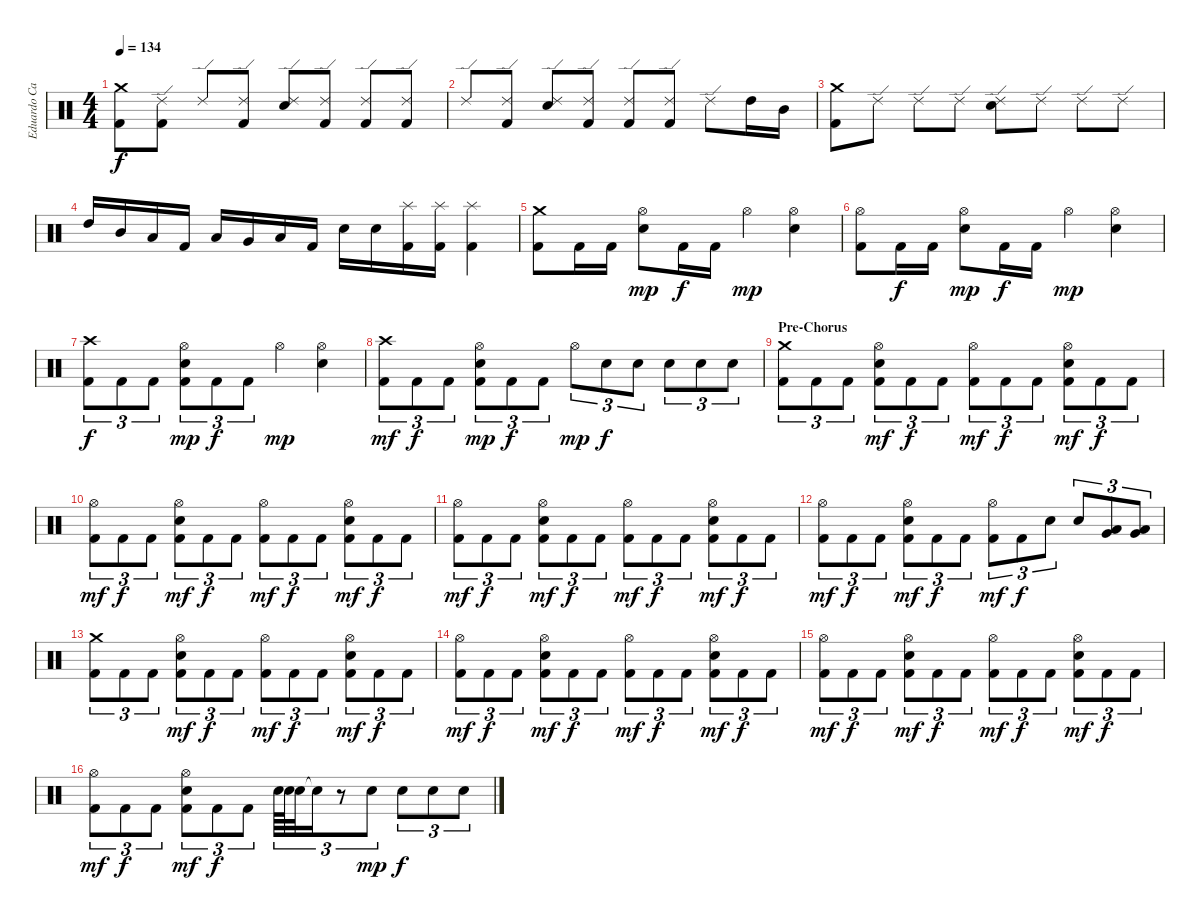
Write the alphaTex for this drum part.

\track ("Eduardo Carrillo" "Eduardo Ca") {instrument percussion}
\staff {score}
\articulation defaults
\ts (4 4)
\tempo 134
\clef neutral
\ks c
("Kick (hit) 2" "Crash medium (hit)").8{dy f} ("Kick (hit) 2" "Ride (edge) 2").8 "Ride (edge) 2".8 ("Kick (hit) 2" "Ride (edge) 2").8 ("Ride (edge) 2" "Snare (hit) 2").8 ("Kick (hit) 2" "Ride (edge) 2").8 ("Kick (hit) 2" "Ride (edge) 2").8 ("Kick (hit) 2" "Ride (edge) 2").8 |
"Ride (edge) 2".8 ("Kick (hit) 2" "Ride (edge) 2").8 ("Ride (edge) 2" "Snare (hit) 2").8 ("Kick (hit) 2" "Ride (edge) 2").8 ("Kick (hit) 2" "Ride (edge) 2").8 ("Kick (hit) 2" "Ride (edge) 2").8 "Ride (edge) 2".8 "High Tom (hit)".16 "Mid Tom (hit)".16 |
("Kick (hit) 2" "Crash medium (hit)").8 "Ride (edge) 2".8 "Ride (edge) 2".8 "Ride (edge) 2".8 ("Ride (edge) 2" "Snare (hit) 2").8 "Ride (edge) 2".8 "Ride (edge) 2".8 "Ride (edge) 2".8 |
"High Tom (hit)".16 "Mid Tom (hit)".16 "Low Tom (hit)".16 "Kick (hit) 2".16 "Low Tom (hit)".16 "Very Low Tom (hit)".16 "Low Floor Tom (hit)".16 "Kick (hit) 2".16 "Snare (hit) 2".16 "Snare (hit) 2".16 ("Kick (hit) 2" "Splash (hit)").16 ("Kick (hit) 2" "Splash (hit)").16 ("Kick (hit) 2" "Splash (hit)").4 |
("Kick (hit) 2" "Crash medium (hit)").8 "Kick (hit) 2".16 "Kick (hit) 2".16 ("Hi-Hat (open)" "Snare (hit) 2").8{dy mp} "Kick (hit) 2".16{dy f} "Kick (hit) 2".16 "Hi-Hat (open)".4{dy mp} ("Hi-Hat (open)" "Snare (hit) 2").4 |
("Kick (hit) 2" "Hi-Hat (open)").8 "Kick (hit) 2".16{dy f} "Kick (hit) 2".16 ("Hi-Hat (open)" "Snare (hit) 2").8{dy mp} "Kick (hit) 2".16{dy f} "Kick (hit) 2".16 "Hi-Hat (open)".4{dy mp} ("Hi-Hat (open)" "Snare (hit) 2").4 |
("Kick (hit) 2" "Crash high (hit)").8{tu (3 2) dy f} "Kick (hit) 2".8{tu (3 2)} "Kick (hit) 2".8{tu (3 2)} ("Kick (hit) 2" "Hi-Hat (open)" "Snare (hit) 2").8{tu (3 2) dy mp} "Kick (hit) 2".8{tu (3 2) dy f} "Kick (hit) 2".8{tu (3 2)} "Hi-Hat (open)".4{dy mp} ("Hi-Hat (open)" "Snare (hit) 2").4 |
("Kick (hit) 2" "Crash high (hit)").8{tu (3 2) dy mf} "Kick (hit) 2".8{tu (3 2) dy f} "Kick (hit) 2".8{tu (3 2)} ("Kick (hit) 2" "Hi-Hat (open)" "Snare (hit) 2").8{tu (3 2) dy mp} "Kick (hit) 2".8{tu (3 2) dy f} "Kick (hit) 2".8{tu (3 2)} "Hi-Hat (open)".8{tu (3 2) dy mp} "Snare (hit) 2".8{tu (3 2) dy f} "Snare (hit) 2".8{tu (3 2)} "Snare (hit) 2".8{tu (3 2)} "Snare (hit) 2".8{tu (3 2)} "Snare (hit) 2".8{tu (3 2)} |
\section ("" "Pre-Chorus")
("Kick (hit) 2" "Crash medium (hit)").8{tu (3 2)} "Kick (hit) 2".8{tu (3 2)} "Kick (hit) 2".8{tu (3 2)} ("Kick (hit) 2" "Hi-Hat (open)" "Snare (hit) 2").8{tu (3 2) dy mf} "Kick (hit) 2".8{tu (3 2) dy f} "Kick (hit) 2".8{tu (3 2)} ("Kick (hit) 2" "Hi-Hat (open)").8{tu (3 2) dy mf} "Kick (hit) 2".8{tu (3 2) dy f} "Kick (hit) 2".8{tu (3 2)} ("Kick (hit) 2" "Hi-Hat (open)" "Snare (hit) 2").8{tu (3 2) dy mf} "Kick (hit) 2".8{tu (3 2) dy f} "Kick (hit) 2".8{tu (3 2)} |
("Kick (hit) 2" "Hi-Hat (open)").8{tu (3 2) dy mf} "Kick (hit) 2".8{tu (3 2) dy f} "Kick (hit) 2".8{tu (3 2)} ("Kick (hit) 2" "Hi-Hat (open)" "Snare (hit) 2").8{tu (3 2) dy mf} "Kick (hit) 2".8{tu (3 2) dy f} "Kick (hit) 2".8{tu (3 2)} ("Kick (hit) 2" "Hi-Hat (open)").8{tu (3 2) dy mf} "Kick (hit) 2".8{tu (3 2) dy f} "Kick (hit) 2".8{tu (3 2)} ("Kick (hit) 2" "Hi-Hat (open)" "Snare (hit) 2").8{tu (3 2) dy mf} "Kick (hit) 2".8{tu (3 2) dy f} "Kick (hit) 2".8{tu (3 2)} |
("Kick (hit) 2" "Hi-Hat (open)").8{tu (3 2) dy mf} "Kick (hit) 2".8{tu (3 2) dy f} "Kick (hit) 2".8{tu (3 2)} ("Kick (hit) 2" "Hi-Hat (open)" "Snare (hit) 2").8{tu (3 2) dy mf} "Kick (hit) 2".8{tu (3 2) dy f} "Kick (hit) 2".8{tu (3 2)} ("Kick (hit) 2" "Hi-Hat (open)").8{tu (3 2) dy mf} "Kick (hit) 2".8{tu (3 2) dy f} "Kick (hit) 2".8{tu (3 2)} ("Kick (hit) 2" "Hi-Hat (open)" "Snare (hit) 2").8{tu (3 2) dy mf} "Kick (hit) 2".8{tu (3 2) dy f} "Kick (hit) 2".8{tu (3 2)} |
("Kick (hit) 2" "Hi-Hat (open)").8{tu (3 2) dy mf} "Kick (hit) 2".8{tu (3 2) dy f} "Kick (hit) 2".8{tu (3 2)} ("Kick (hit) 2" "Hi-Hat (open)" "Snare (hit) 2").8{tu (3 2) dy mf} "Kick (hit) 2".8{tu (3 2) dy f} "Kick (hit) 2".8{tu (3 2)} ("Kick (hit) 2" "Hi-Hat (open)").8{tu (3 2) dy mf} "Kick (hit) 2".8{tu (3 2) dy f} "Snare (hit) 2".8{tu (3 2)} "Snare (hit) 2".8{tu (3 2)} ("Low Tom (hit)" "Very Low Tom (hit)").8{tu (3 2)} ("Very Low Tom (hit)" "Low Floor Tom (hit)").8{tu (3 2)} |
("Kick (hit) 2" "Crash medium (hit)").8{tu (3 2)} "Kick (hit) 2".8{tu (3 2)} "Kick (hit) 2".8{tu (3 2)} ("Kick (hit) 2" "Hi-Hat (open)" "Snare (hit) 2").8{tu (3 2) dy mf} "Kick (hit) 2".8{tu (3 2) dy f} "Kick (hit) 2".8{tu (3 2)} ("Kick (hit) 2" "Hi-Hat (open)").8{tu (3 2) dy mf} "Kick (hit) 2".8{tu (3 2) dy f} "Kick (hit) 2".8{tu (3 2)} ("Kick (hit) 2" "Hi-Hat (open)" "Snare (hit) 2").8{tu (3 2) dy mf} "Kick (hit) 2".8{tu (3 2) dy f} "Kick (hit) 2".8{tu (3 2)} |
("Kick (hit) 2" "Hi-Hat (open)").8{tu (3 2) dy mf} "Kick (hit) 2".8{tu (3 2) dy f} "Kick (hit) 2".8{tu (3 2)} ("Kick (hit) 2" "Hi-Hat (open)" "Snare (hit) 2").8{tu (3 2) dy mf} "Kick (hit) 2".8{tu (3 2) dy f} "Kick (hit) 2".8{tu (3 2)} ("Kick (hit) 2" "Hi-Hat (open)").8{tu (3 2) dy mf} "Kick (hit) 2".8{tu (3 2) dy f} "Kick (hit) 2".8{tu (3 2)} ("Kick (hit) 2" "Hi-Hat (open)" "Snare (hit) 2").8{tu (3 2) dy mf} "Kick (hit) 2".8{tu (3 2) dy f} "Kick (hit) 2".8{tu (3 2)} |
("Kick (hit) 2" "Hi-Hat (open)").8{tu (3 2) dy mf} "Kick (hit) 2".8{tu (3 2) dy f} "Kick (hit) 2".8{tu (3 2)} ("Kick (hit) 2" "Hi-Hat (open)" "Snare (hit) 2").8{tu (3 2) dy mf} "Kick (hit) 2".8{tu (3 2) dy f} "Kick (hit) 2".8{tu (3 2)} ("Kick (hit) 2" "Hi-Hat (open)").8{tu (3 2) dy mf} "Kick (hit) 2".8{tu (3 2) dy f} "Kick (hit) 2".8{tu (3 2)} ("Kick (hit) 2" "Hi-Hat (open)" "Snare (hit) 2").8{tu (3 2) dy mf} "Kick (hit) 2".8{tu (3 2) dy f} "Kick (hit) 2".8{tu (3 2)} |
("Kick (hit) 2" "Hi-Hat (open)").8{tu (3 2) dy mf} "Kick (hit) 2".8{tu (3 2) dy f} "Kick (hit) 2".8{tu (3 2)} ("Kick (hit) 2" "Hi-Hat (open)" "Snare (hit) 2").8{tu (3 2) dy mf} "Kick (hit) 2".8{tu (3 2) dy f} "Kick (hit) 2".8{tu (3 2)} "Snare (hit) 2".64{tu (3 2)} "Snare (hit) 2".64{tu (3 2)} "Snare (hit)"{t}.32{tu (3 2)} "Snare (hit)"{t}.16{tu (3 2)} r.8{tu (3 2)} "Snare (hit) 2".8{tu (3 2) dy mp} "Snare (hit) 2".8{tu (3 2) dy f} "Snare (hit) 2".8{tu (3 2)} "Snare (hit) 2".8{tu (3 2)}
